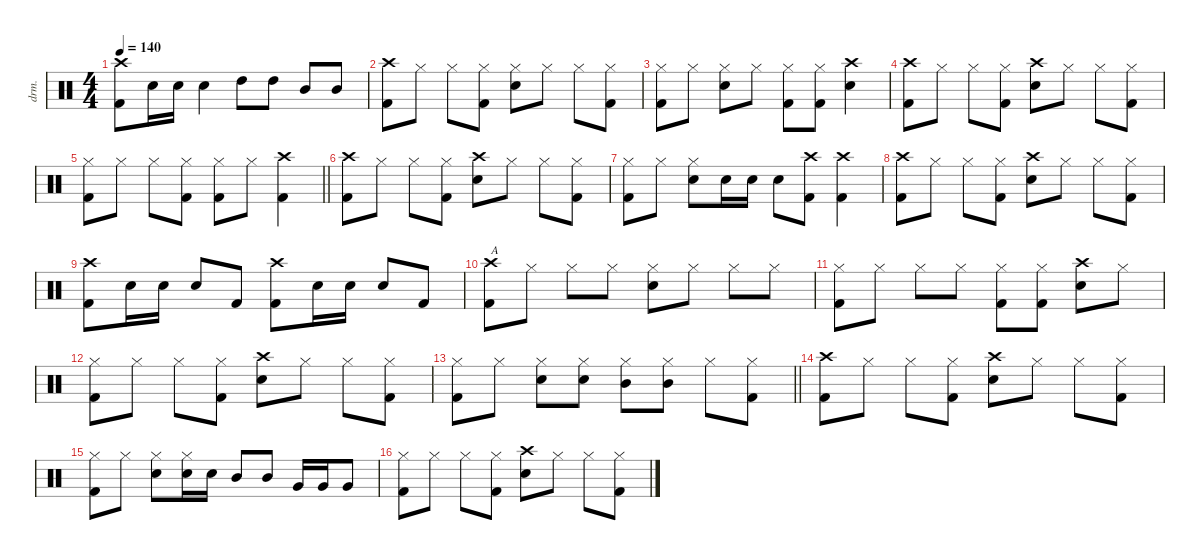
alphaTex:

\defaultSystemsLayout 4
\hideDynamics
\bracketExtendMode nobrackets
\otherSystemsTrackNameOrientation horizontal
\track ("Drums" "drm.") {defaultSystemsLayout 4 instrument percussion}
\staff {score}
\articulation defaults
\ts (4 4)
\tempo 140
\clef neutral
\ks c
("Crash high (hit)" "Kick (hit) 2").8{dy f beam Down} "Snare (hit) 2".16{beam Down} "Snare (hit) 2".16{beam Down} "Snare (hit) 2".4{beam Down} "High Tom (hit)".8{beam Down} "High Tom (hit)".8{beam Down} "Mid Tom (hit)".8{beam Up} "Mid Tom (hit)".8{beam Up} |
("Crash high (hit)" "Kick (hit) 2").8{beam Down} "Hi-Hat (closed)".8{beam Down} "Hi-Hat (closed)".8{beam Down} ("Hi-Hat (closed)" "Kick (hit) 2").8{beam Down} ("Hi-Hat (closed)" "Snare (hit) 2").8{beam Down} "Hi-Hat (closed)".8{beam Down} "Hi-Hat (closed)".8{beam Down} ("Hi-Hat (closed)" "Kick (hit) 2").8{beam Down} |
("Hi-Hat (closed)" "Kick (hit) 2").8{beam Down} "Hi-Hat (closed)".8{beam Down} ("Hi-Hat (closed)" "Snare (hit) 2").8{beam Down} "Hi-Hat (closed)".8{beam Down} ("Hi-Hat (closed)" "Kick (hit) 2").8{beam Down} ("Hi-Hat (closed)" "Kick (hit) 2").8{beam Down} ("Crash high (hit)" "Snare (hit) 2").4{beam Down} |
("Crash high (hit)" "Kick (hit) 2").8{beam Down} "Hi-Hat (closed)".8{beam Down} "Hi-Hat (closed)".8{beam Down} ("Hi-Hat (closed)" "Kick (hit) 2").8{beam Down} ("Crash high (hit)" "Snare (hit) 2").8{beam Down} "Hi-Hat (closed)".8{beam Down} "Hi-Hat (closed)".8{beam Down} ("Hi-Hat (closed)" "Kick (hit) 2").8{beam Down} |
\barLineRight lightlight
("Hi-Hat (closed)" "Kick (hit) 2").8{beam Down} "Hi-Hat (closed)".8{beam Down} "Hi-Hat (closed)".8{beam Down} ("Hi-Hat (closed)" "Kick (hit) 2").8{beam Down} ("Hi-Hat (closed)" "Kick (hit) 2").8{beam Down} "Hi-Hat (closed)".8{beam Down} ("Crash high (hit)" "Kick (hit) 2").4{beam Down} |
("Crash high (hit)" "Kick (hit) 2").8{beam Down} "Hi-Hat (closed)".8{beam Down} "Hi-Hat (closed)".8{beam Down} ("Hi-Hat (closed)" "Kick (hit) 2").8{beam Down} ("Crash high (hit)" "Snare (hit) 2").8{beam Down} "Hi-Hat (closed)".8{beam Down} "Hi-Hat (closed)".8{beam Down} ("Hi-Hat (closed)" "Kick (hit) 2").8{beam Down} |
("Hi-Hat (closed)" "Kick (hit) 2").8{beam Down} "Hi-Hat (closed)".8{beam Down} ("Hi-Hat (closed)" "Snare (hit) 2").8{beam Down} "Snare (hit) 2".16{beam Down} "Snare (hit) 2".16{beam Down} "Snare (hit) 2".8{beam Down} ("Crash high (hit)" "Kick (hit) 2").8{beam Down} ("Crash high (hit)" "Kick (hit) 2").4{beam Down} |
("Crash high (hit)" "Kick (hit) 2").8{beam Down} "Hi-Hat (closed)".8{beam Down} "Hi-Hat (closed)".8{beam Down} ("Hi-Hat (closed)" "Kick (hit) 2").8{beam Down} ("Crash high (hit)" "Snare (hit) 2").8{beam Down} "Hi-Hat (closed)".8{beam Down} "Hi-Hat (closed)".8{beam Down} ("Hi-Hat (closed)" "Kick (hit) 2").8{beam Down} |
("Crash high (hit)" "Kick (hit) 2").8{beam Down} "Snare (hit) 2".16{beam Down} "Snare (hit) 2".16{beam Down} "Snare (hit) 2".8{beam Up} "Kick (hit) 2".8{beam Up} ("Crash high (hit)" "Kick (hit) 2").8{beam Down} "Snare (hit) 2".16{beam Down} "Snare (hit) 2".16{beam Down} "Snare (hit) 2".8{beam Up} "Kick (hit) 2".8{beam Up} |
("Crash high (hit)" "Kick (hit) 2").8{txt "A" beam Down} "Hi-Hat (closed)".8{beam Down} "Hi-Hat (closed)".8{beam Down} "Hi-Hat (closed)".8{beam Down} ("Hi-Hat (closed)" "Snare (hit) 2").8{beam Down} "Hi-Hat (closed)".8{beam Down} "Hi-Hat (closed)".8{beam Down} "Hi-Hat (closed)".8{beam Down} |
("Hi-Hat (closed)" "Kick (hit) 2").8{beam Down} "Hi-Hat (closed)".8{beam Down} "Hi-Hat (closed)".8{beam Down} "Hi-Hat (closed)".8{beam Down} ("Hi-Hat (closed)" "Kick (hit) 2").8{beam Down} ("Hi-Hat (closed)" "Kick (hit) 2").8{beam Down} ("Crash high (hit)" "Snare (hit) 2").8{beam Down} "Hi-Hat (closed)".8{beam Down} |
("Hi-Hat (closed)" "Kick (hit) 2").8{beam Down} "Hi-Hat (closed)".8{beam Down} "Hi-Hat (closed)".8{beam Down} ("Hi-Hat (closed)" "Kick (hit) 2").8{beam Down} ("Crash high (hit)" "Snare (hit) 2").8{beam Down} "Hi-Hat (closed)".8{beam Down} "Hi-Hat (closed)".8{beam Down} ("Hi-Hat (closed)" "Kick (hit) 2").8{beam Down} |
\barLineRight lightlight
("Hi-Hat (closed)" "Kick (hit) 2").8{beam Down} "Hi-Hat (closed)".8{beam Down} ("Hi-Hat (closed)" "Snare (hit) 2").8{beam Down} ("Hi-Hat (closed)" "Snare (hit) 2").8{beam Down} ("Hi-Hat (closed)" "Mid Tom (hit)").8{beam Down} ("Hi-Hat (closed)" "Mid Tom (hit)").8{beam Down} "Hi-Hat (closed)".8{beam Down} ("Hi-Hat (closed)" "Kick (hit) 2").8{beam Down} |
("Crash high (hit)" "Kick (hit) 2").8{beam Down} "Hi-Hat (closed)".8{beam Down} "Hi-Hat (closed)".8{beam Down} ("Hi-Hat (closed)" "Kick (hit) 2").8{beam Down} ("Crash high (hit)" "Snare (hit) 2").8{beam Down} "Hi-Hat (closed)".8{beam Down} "Hi-Hat (closed)".8{beam Down} ("Hi-Hat (closed)" "Kick (hit) 2").8{beam Down} |
("Hi-Hat (closed)" "Kick (hit) 2").8{beam Down} "Hi-Hat (closed)".8{beam Down} ("Hi-Hat (closed)" "Snare (hit) 2").8{beam Down} ("Hi-Hat (closed)" "Snare (hit) 2").16{beam Down} "Snare (hit) 2".16{beam Down} "Mid Tom (hit)".8{beam Up} "Mid Tom (hit)".8{beam Up} "Very Low Tom (hit)".16{beam Up} "Very Low Tom (hit)".16{beam Up} "Very Low Tom (hit)".8{beam Up} |
("Hi-Hat (closed)" "Kick (hit) 2").8{beam Down} "Hi-Hat (closed)".8{beam Down} "Hi-Hat (closed)".8{beam Down} ("Hi-Hat (closed)" "Kick (hit) 2").8{beam Down} ("Crash high (hit)" "Snare (hit) 2").8{beam Down} "Hi-Hat (closed)".8{beam Down} "Hi-Hat (closed)".8{beam Down} ("Hi-Hat (closed)" "Kick (hit) 2").8{beam Down}
